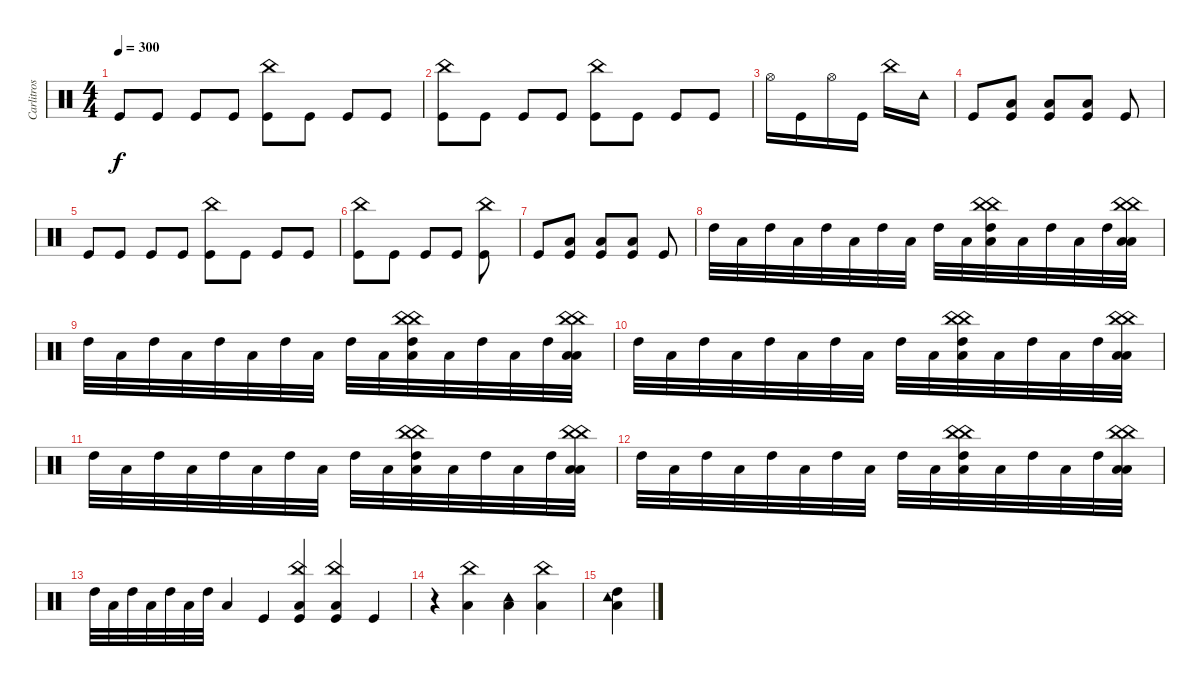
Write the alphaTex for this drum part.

\track ("Carlitros" "Carlitros") {instrument percussion}
\staff {score}
\articulation defaults
\ts (4 4)
\tempo 300
\clef neutral
\ks c "Kick (hit)".8{dy f} "Kick (hit)".8 "Kick (hit)".8 "Kick (hit)".8
("China (hit)" "Kick (hit)").8 "Kick (hit)".8 "Kick (hit)".8 "Kick (hit)".8 |
("China (hit)" "Kick (hit)").8 "Kick (hit)".8 "Kick (hit)".8 "Kick (hit)".8 ("China (hit)" "Kick (hit)").8 "Kick (hit)".8 "Kick (hit)".8 "Kick (hit)".8 |
"Hi-Hat (open)".16 "Kick (hit)".16 "Hi-Hat (open)".16 "Kick (hit)".16 "China (hit)".16 "Tambourine (hit)".16 |
"Kick (hit)".8 ("Low Tom (hit)" "Kick (hit)").8 ("Low Tom (hit)" "Kick (hit)").8 ("Low Tom (hit)" "Kick (hit)").8 "Kick (hit)".8 |
"Kick (hit)".8 "Kick (hit)".8 "Kick (hit)".8 "Kick (hit)".8 ("China (hit)" "Kick (hit)").8 "Kick (hit)".8 "Kick (hit)".8 "Kick (hit)".8 |
("China (hit)" "Kick (hit)").8 "Kick (hit)".8 "Kick (hit)".8 "Kick (hit)".8 ("China (hit)" "Kick (hit)").8 |
"Kick (hit)".8 ("Low Tom (hit)" "Kick (hit)").8 ("Low Tom (hit)" "Kick (hit)").8 ("Low Tom (hit)" "Kick (hit)").8 "Kick (hit)".8 |
"High Tom (hit)".32 "Low Floor Tom (hit)".32 "High Tom (hit)".32 "Low Floor Tom (hit)".32 "High Tom (hit)".32 "Low Floor Tom (hit)".32 "High Tom (hit)".32 "Low Floor Tom (hit)".32 "High Tom (hit)".32 "Low Floor Tom (hit)".32 ("Low Tom (hit)" "China (hit)" "China (hit)" "High Tom (hit)").32 "Low Floor Tom (hit)".32 "High Tom (hit)".32 "Low Floor Tom (hit)".32 "High Tom (hit)".32 ("Low Tom (hit)" "China (hit)" "China (hit)" "Low Floor Tom (hit)").32 |
"High Tom (hit)".32 "Low Floor Tom (hit)".32 "High Tom (hit)".32 "Low Floor Tom (hit)".32 "High Tom (hit)".32 "Low Floor Tom (hit)".32 "High Tom (hit)".32 "Low Floor Tom (hit)".32 "High Tom (hit)".32 "Low Floor Tom (hit)".32 ("Low Tom (hit)" "China (hit)" "China (hit)" "High Tom (hit)").32 "Low Floor Tom (hit)".32 "High Tom (hit)".32 "Low Floor Tom (hit)".32 "High Tom (hit)".32 ("Low Tom (hit)" "China (hit)" "China (hit)" "Low Floor Tom (hit)").32 |
"High Tom (hit)".32 "Low Floor Tom (hit)".32 "High Tom (hit)".32 "Low Floor Tom (hit)".32 "High Tom (hit)".32 "Low Floor Tom (hit)".32 "High Tom (hit)".32 "Low Floor Tom (hit)".32 "High Tom (hit)".32 "Low Floor Tom (hit)".32 ("Low Tom (hit)" "China (hit)" "China (hit)" "High Tom (hit)").32 "Low Floor Tom (hit)".32 "High Tom (hit)".32 "Low Floor Tom (hit)".32 "High Tom (hit)".32 ("Low Tom (hit)" "China (hit)" "China (hit)" "Low Floor Tom (hit)").32 |
"High Tom (hit)".32 "Low Floor Tom (hit)".32 "High Tom (hit)".32 "Low Floor Tom (hit)".32 "High Tom (hit)".32 "Low Floor Tom (hit)".32 "High Tom (hit)".32 "Low Floor Tom (hit)".32 "High Tom (hit)".32 "Low Floor Tom (hit)".32 ("Low Tom (hit)" "China (hit)" "China (hit)" "High Tom (hit)").32 "Low Floor Tom (hit)".32 "High Tom (hit)".32 "Low Floor Tom (hit)".32 "High Tom (hit)".32 ("Low Tom (hit)" "China (hit)" "China (hit)" "Low Floor Tom (hit)").32 |
"High Tom (hit)".32 "Low Floor Tom (hit)".32 "High Tom (hit)".32 "Low Floor Tom (hit)".32 "High Tom (hit)".32 "Low Floor Tom (hit)".32 "High Tom (hit)".32 "Low Floor Tom (hit)".32 "High Tom (hit)".32 "Low Floor Tom (hit)".32 ("Low Tom (hit)" "China (hit)" "China (hit)" "High Tom (hit)").32 "Low Floor Tom (hit)".32 "High Tom (hit)".32 "Low Floor Tom (hit)".32 "High Tom (hit)".32 ("Low Tom (hit)" "China (hit)" "China (hit)" "Low Floor Tom (hit)").32 |
"High Tom (hit)".32 "Low Floor Tom (hit)".32 "High Tom (hit)".32 "Low Floor Tom (hit)".32 "High Tom (hit)".32 "Low Floor Tom (hit)".32 "High Tom (hit)".32 "Low Floor Tom (hit)".4 "Kick (hit)".4 ("Low Tom (hit)" "China (hit)" "Kick (hit)").4 ("Low Tom (hit)" "China (hit)" "Kick (hit)").4 "Kick (hit)".4 |
r.4 ("China (hit)" "Low Tom (hit)").4 ("Low Tom (hit)" "Tambourine (hit)").4 ("China (hit)" "Low Tom (hit)").4 |
("Low Tom (hit)" "Tambourine (hit)" "High Tom (hit)").4
